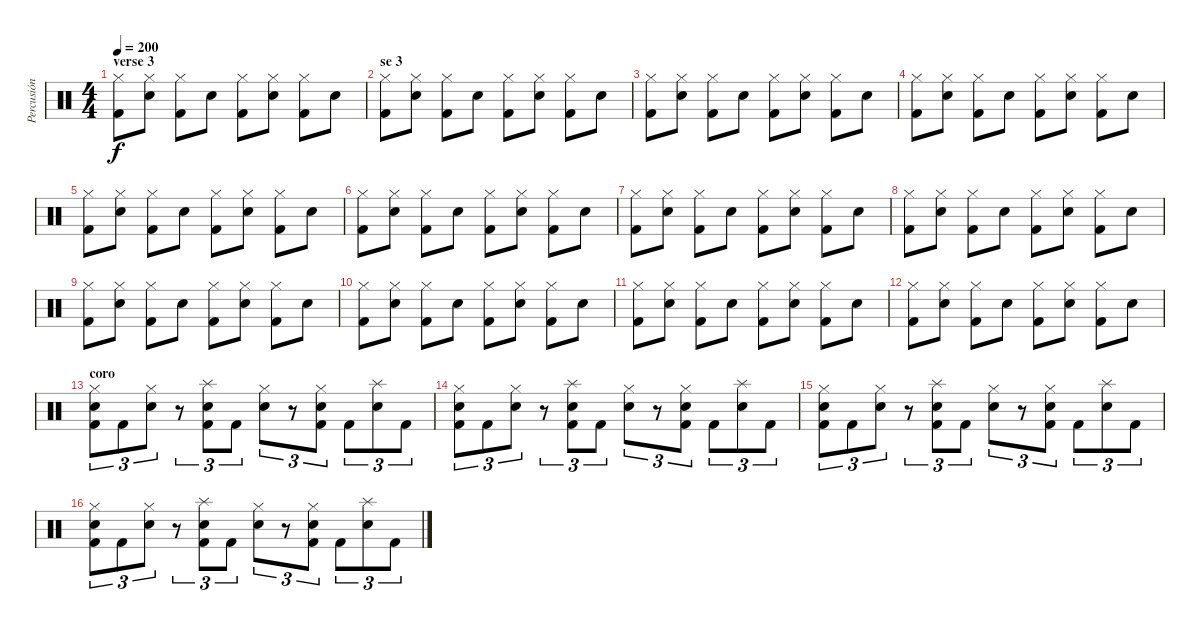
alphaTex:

\track ("Percusión" "Percusión") {instrument percussion}
\staff {score}
\articulation defaults
\ts (4 4)
\section ("" "verse 3")
\tempo 200
\clef neutral
\ks c
("Hi-Hat (closed)" "Kick (hit) 2").8{dy f} ("Hi-Hat (closed)" "Snare (hit) 2").8 ("Hi-Hat (closed)" "Kick (hit) 2").8 "Snare (hit) 2".8 ("Hi-Hat (closed)" "Kick (hit) 2").8 ("Hi-Hat (closed)" "Snare (hit) 2").8 ("Hi-Hat (closed)" "Kick (hit) 2").8 "Snare (hit) 2".8 |
\section ("" "se 3")
("Hi-Hat (closed)" "Kick (hit) 2").8 ("Hi-Hat (closed)" "Snare (hit) 2").8 ("Hi-Hat (closed)" "Kick (hit) 2").8 "Snare (hit) 2".8 ("Hi-Hat (closed)" "Kick (hit) 2").8 ("Hi-Hat (closed)" "Snare (hit) 2").8 ("Hi-Hat (closed)" "Kick (hit) 2").8 "Snare (hit) 2".8 |
("Hi-Hat (closed)" "Kick (hit) 2").8 ("Hi-Hat (closed)" "Snare (hit) 2").8 ("Hi-Hat (closed)" "Kick (hit) 2").8 "Snare (hit) 2".8 ("Hi-Hat (closed)" "Kick (hit) 2").8 ("Hi-Hat (closed)" "Snare (hit) 2").8 ("Hi-Hat (closed)" "Kick (hit) 2").8 "Snare (hit) 2".8 |
("Hi-Hat (closed)" "Kick (hit) 2").8 ("Hi-Hat (closed)" "Snare (hit) 2").8 ("Hi-Hat (closed)" "Kick (hit) 2").8 "Snare (hit) 2".8 ("Hi-Hat (closed)" "Kick (hit) 2").8 ("Hi-Hat (closed)" "Snare (hit) 2").8 ("Hi-Hat (closed)" "Kick (hit) 2").8 "Snare (hit) 2".8 |
("Hi-Hat (closed)" "Kick (hit) 2").8 ("Hi-Hat (closed)" "Snare (hit) 2").8 ("Hi-Hat (closed)" "Kick (hit) 2").8 "Snare (hit) 2".8 ("Hi-Hat (closed)" "Kick (hit) 2").8 ("Hi-Hat (closed)" "Snare (hit) 2").8 ("Hi-Hat (closed)" "Kick (hit) 2").8 "Snare (hit) 2".8 |
("Hi-Hat (closed)" "Kick (hit) 2").8 ("Hi-Hat (closed)" "Snare (hit) 2").8 ("Hi-Hat (closed)" "Kick (hit) 2").8 "Snare (hit) 2".8 ("Hi-Hat (closed)" "Kick (hit) 2").8 ("Hi-Hat (closed)" "Snare (hit) 2").8 ("Hi-Hat (closed)" "Kick (hit) 2").8 "Snare (hit) 2".8 |
("Hi-Hat (closed)" "Kick (hit) 2").8 ("Hi-Hat (closed)" "Snare (hit) 2").8 ("Hi-Hat (closed)" "Kick (hit) 2").8 "Snare (hit) 2".8 ("Hi-Hat (closed)" "Kick (hit) 2").8 ("Hi-Hat (closed)" "Snare (hit) 2").8 ("Hi-Hat (closed)" "Kick (hit) 2").8 "Snare (hit) 2".8 |
("Hi-Hat (closed)" "Kick (hit) 2").8 ("Hi-Hat (closed)" "Snare (hit) 2").8 ("Hi-Hat (closed)" "Kick (hit) 2").8 "Snare (hit) 2".8 ("Hi-Hat (closed)" "Kick (hit) 2").8 ("Hi-Hat (closed)" "Snare (hit) 2").8 ("Hi-Hat (closed)" "Kick (hit) 2").8 "Snare (hit) 2".8 |
("Hi-Hat (closed)" "Kick (hit) 2").8 ("Hi-Hat (closed)" "Snare (hit) 2").8 ("Hi-Hat (closed)" "Kick (hit) 2").8 "Snare (hit) 2".8 ("Hi-Hat (closed)" "Kick (hit) 2").8 ("Hi-Hat (closed)" "Snare (hit) 2").8 ("Hi-Hat (closed)" "Kick (hit) 2").8 "Snare (hit) 2".8 |
("Hi-Hat (closed)" "Kick (hit) 2").8 ("Hi-Hat (closed)" "Snare (hit) 2").8 ("Hi-Hat (closed)" "Kick (hit) 2").8 "Snare (hit) 2".8 ("Hi-Hat (closed)" "Kick (hit) 2").8 ("Hi-Hat (closed)" "Snare (hit) 2").8 ("Hi-Hat (closed)" "Kick (hit) 2").8 "Snare (hit) 2".8 |
("Hi-Hat (closed)" "Kick (hit) 2").8 ("Hi-Hat (closed)" "Snare (hit) 2").8 ("Hi-Hat (closed)" "Kick (hit) 2").8 "Snare (hit) 2".8 ("Hi-Hat (closed)" "Kick (hit) 2").8 ("Hi-Hat (closed)" "Snare (hit) 2").8 ("Hi-Hat (closed)" "Kick (hit) 2").8 "Snare (hit) 2".8 |
("Hi-Hat (closed)" "Kick (hit) 2").8 ("Hi-Hat (closed)" "Snare (hit) 2").8 ("Hi-Hat (closed)" "Kick (hit) 2").8 "Snare (hit) 2".8 ("Hi-Hat (closed)" "Kick (hit) 2").8 ("Hi-Hat (closed)" "Snare (hit) 2").8 ("Hi-Hat (closed)" "Kick (hit) 2").8 "Snare (hit) 2".8 |
\section ("" "coro")
("Hi-Hat (closed)" "Snare (hit) 2" "Kick (hit) 2").8{tu (3 2)} "Kick (hit) 2".8{tu (3 2)} ("Hi-Hat (closed)" "Snare (hit) 2").8{tu (3 2)} r.8{tu (3 2)} ("Splash (hit)" "Snare (hit) 2" "Kick (hit) 2").8{tu (3 2)} "Kick (hit) 2".8{tu (3 2)} ("Hi-Hat (closed)" "Snare (hit) 2").8{tu (3 2)} r.8{tu (3 2)} ("Hi-Hat (closed)" "Snare (hit) 2" "Kick (hit) 2").8{tu (3 2)} "Kick (hit) 2".8{tu (3 2)} ("Splash (hit)" "Snare (hit) 2").8{tu (3 2)} "Kick (hit) 2".8{tu (3 2)} |
("Hi-Hat (closed)" "Snare (hit) 2" "Kick (hit) 2").8{tu (3 2)} "Kick (hit) 2".8{tu (3 2)} ("Hi-Hat (closed)" "Snare (hit) 2").8{tu (3 2)} r.8{tu (3 2)} ("Splash (hit)" "Snare (hit) 2" "Kick (hit) 2").8{tu (3 2)} "Kick (hit) 2".8{tu (3 2)} ("Hi-Hat (closed)" "Snare (hit) 2").8{tu (3 2)} r.8{tu (3 2)} ("Hi-Hat (closed)" "Snare (hit) 2" "Kick (hit) 2").8{tu (3 2)} "Kick (hit) 2".8{tu (3 2)} ("Splash (hit)" "Snare (hit) 2").8{tu (3 2)} "Kick (hit) 2".8{tu (3 2)} |
("Hi-Hat (closed)" "Snare (hit) 2" "Kick (hit) 2").8{tu (3 2)} "Kick (hit) 2".8{tu (3 2)} ("Hi-Hat (closed)" "Snare (hit) 2").8{tu (3 2)} r.8{tu (3 2)} ("Splash (hit)" "Snare (hit) 2" "Kick (hit) 2").8{tu (3 2)} "Kick (hit) 2".8{tu (3 2)} ("Hi-Hat (closed)" "Snare (hit) 2").8{tu (3 2)} r.8{tu (3 2)} ("Hi-Hat (closed)" "Snare (hit) 2" "Kick (hit) 2").8{tu (3 2)} "Kick (hit) 2".8{tu (3 2)} ("Splash (hit)" "Snare (hit) 2").8{tu (3 2)} "Kick (hit) 2".8{tu (3 2)} |
("Hi-Hat (closed)" "Snare (hit) 2" "Kick (hit) 2").8{tu (3 2)} "Kick (hit) 2".8{tu (3 2)} ("Hi-Hat (closed)" "Snare (hit) 2").8{tu (3 2)} r.8{tu (3 2)} ("Splash (hit)" "Snare (hit) 2" "Kick (hit) 2").8{tu (3 2)} "Kick (hit) 2".8{tu (3 2)} ("Hi-Hat (closed)" "Snare (hit) 2").8{tu (3 2)} r.8{tu (3 2)} ("Hi-Hat (closed)" "Snare (hit) 2" "Kick (hit) 2").8{tu (3 2)} "Kick (hit) 2".8{tu (3 2)} ("Splash (hit)" "Snare (hit) 2").8{tu (3 2)} "Kick (hit) 2".8{tu (3 2)}
